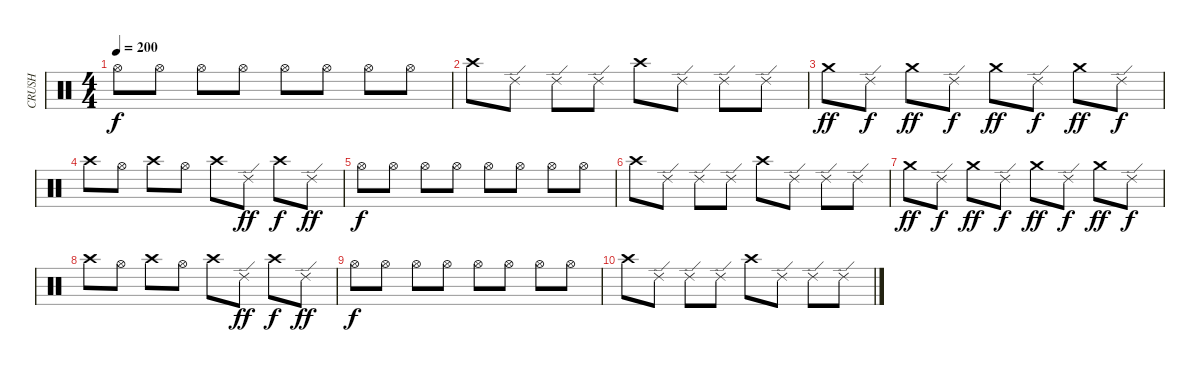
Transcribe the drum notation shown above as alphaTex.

\track ("CRUSH" "CRUSH") {instrument percussion}
\staff {score}
\articulation defaults
\ts (4 4)
\tempo 200
\clef neutral
\ks c "Hi-Hat (open)".8{dy f} "Hi-Hat (open)".8 "Hi-Hat (open)".8 "Hi-Hat (open)".8 "Hi-Hat (open)".8 "Hi-Hat (open)".8 "Hi-Hat (open)".8 "Hi-Hat (open)".8
|
"Crash high (hit)".8 "Ride (edge) 2".8 "Ride (edge) 2".8 "Ride (edge) 2".8 "Crash high (hit)".8 "Ride (edge) 2".8 "Ride (edge) 2".8 "Ride (edge) 2".8 |
"Crash medium (hit)".8{dy ff} "Ride (edge) 2".8{dy f} "Crash medium (hit)".8{dy ff} "Ride (edge) 2".8{dy f} "Crash medium (hit)".8{dy ff} "Ride (edge) 2".8{dy f} "Crash medium (hit)".8{dy ff} "Ride (edge) 2".8{dy f} |
"Crash high (hit)".8 "Hi-Hat (open)".8 "Crash high (hit)".8 "Hi-Hat (open)".8 "Crash high (hit)".8 "Ride (edge) 2".8{dy ff} "Crash high (hit)".8{dy f} "Ride (edge) 2".8{dy ff} |
"Hi-Hat (open)".8{dy f} "Hi-Hat (open)".8 "Hi-Hat (open)".8 "Hi-Hat (open)".8 "Hi-Hat (open)".8 "Hi-Hat (open)".8 "Hi-Hat (open)".8 "Hi-Hat (open)".8 |
"Crash high (hit)".8 "Ride (edge) 2".8 "Ride (edge) 2".8 "Ride (edge) 2".8 "Crash high (hit)".8 "Ride (edge) 2".8 "Ride (edge) 2".8 "Ride (edge) 2".8 |
"Crash medium (hit)".8{dy ff} "Ride (edge) 2".8{dy f} "Crash medium (hit)".8{dy ff} "Ride (edge) 2".8{dy f} "Crash medium (hit)".8{dy ff} "Ride (edge) 2".8{dy f} "Crash medium (hit)".8{dy ff} "Ride (edge) 2".8{dy f} |
"Crash high (hit)".8 "Hi-Hat (open)".8 "Crash high (hit)".8 "Hi-Hat (open)".8 "Crash high (hit)".8 "Ride (edge) 2".8{dy ff} "Crash high (hit)".8{dy f} "Ride (edge) 2".8{dy ff} |
"Hi-Hat (open)".8{dy f} "Hi-Hat (open)".8 "Hi-Hat (open)".8 "Hi-Hat (open)".8 "Hi-Hat (open)".8 "Hi-Hat (open)".8 "Hi-Hat (open)".8 "Hi-Hat (open)".8 |
"Crash high (hit)".8 "Ride (edge) 2".8 "Ride (edge) 2".8 "Ride (edge) 2".8 "Crash high (hit)".8 "Ride (edge) 2".8 "Ride (edge) 2".8 "Ride (edge) 2".8
